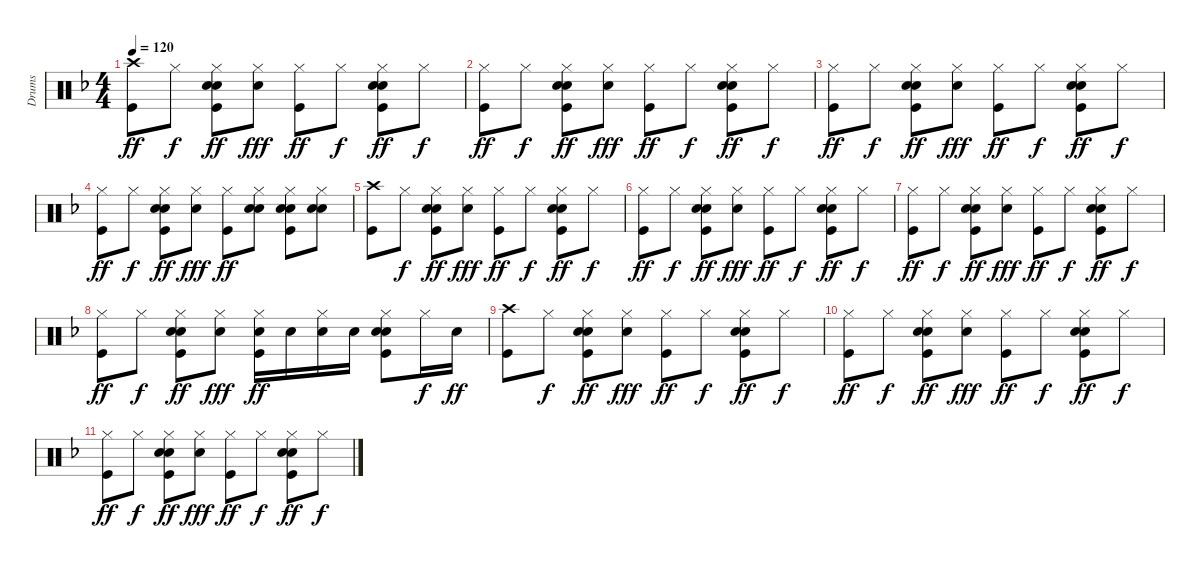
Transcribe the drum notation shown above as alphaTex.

\track ("Drums" "Drums") {instrument percussion}
\staff {score}
\articulation defaults
\ts (4 4)
\tempo 120
\clef neutral
\ks f
("Crash high (hit)" "Kick (hit)").8{dy ff} "Hi-Hat (closed)".8{dy f} ("Hi-Hat (closed)" "Hand Clap (hit)" "Snare (hit) 2" "Kick (hit)").8{dy ff} ("Hi-Hat (closed)" "Hand Clap (hit)").8{dy fff} ("Hi-Hat (closed)" "Kick (hit)").8{dy ff} "Hi-Hat (closed)".8{dy f} ("Hi-Hat (closed)" "Hand Clap (hit)" "Snare (hit) 2" "Kick (hit)").8{dy ff} "Hi-Hat (closed)".8{dy f} |
("Hi-Hat (closed)" "Kick (hit)").8{dy ff} "Hi-Hat (closed)".8{dy f} ("Hi-Hat (closed)" "Hand Clap (hit)" "Snare (hit) 2" "Kick (hit)").8{dy ff} ("Hi-Hat (closed)" "Hand Clap (hit)").8{dy fff} ("Hi-Hat (closed)" "Kick (hit)").8{dy ff} "Hi-Hat (closed)".8{dy f} ("Hi-Hat (closed)" "Hand Clap (hit)" "Snare (hit) 2" "Kick (hit)").8{dy ff} "Hi-Hat (closed)".8{dy f} |
("Hi-Hat (closed)" "Kick (hit)").8{dy ff} "Hi-Hat (closed)".8{dy f} ("Hi-Hat (closed)" "Hand Clap (hit)" "Snare (hit) 2" "Kick (hit)").8{dy ff} ("Hi-Hat (closed)" "Hand Clap (hit)").8{dy fff} ("Hi-Hat (closed)" "Kick (hit)").8{dy ff} "Hi-Hat (closed)".8{dy f} ("Hi-Hat (closed)" "Hand Clap (hit)" "Snare (hit) 2" "Kick (hit)").8{dy ff} "Hi-Hat (closed)".8{dy f} |
("Hi-Hat (closed)" "Kick (hit)").8{dy ff} "Hi-Hat (closed)".8{dy f} ("Hi-Hat (closed)" "Hand Clap (hit)" "Snare (hit) 2" "Kick (hit)").8{dy ff} ("Hi-Hat (closed)" "Hand Clap (hit)").8{dy fff} ("Hi-Hat (closed)" "Kick (hit)").8{dy ff} ("Hi-Hat (closed)" "Hand Clap (hit)" "Snare (hit) 2").8 ("Hi-Hat (closed)" "Hand Clap (hit)" "Snare (hit) 2" "Kick (hit)").8 ("Hi-Hat (closed)" "Hand Clap (hit)" "Snare (hit) 2").8 |
("Crash high (hit)" "Kick (hit)").8 "Hi-Hat (closed)".8{dy f} ("Hi-Hat (closed)" "Hand Clap (hit)" "Snare (hit) 2" "Kick (hit)").8{dy ff} ("Hi-Hat (closed)" "Hand Clap (hit)").8{dy fff} ("Hi-Hat (closed)" "Kick (hit)").8{dy ff} "Hi-Hat (closed)".8{dy f} ("Hi-Hat (closed)" "Hand Clap (hit)" "Snare (hit) 2" "Kick (hit)").8{dy ff} "Hi-Hat (closed)".8{dy f} |
("Hi-Hat (closed)" "Kick (hit)").8{dy ff} "Hi-Hat (closed)".8{dy f} ("Hi-Hat (closed)" "Hand Clap (hit)" "Snare (hit) 2" "Kick (hit)").8{dy ff} ("Hi-Hat (closed)" "Hand Clap (hit)").8{dy fff} ("Hi-Hat (closed)" "Kick (hit)").8{dy ff} "Hi-Hat (closed)".8{dy f} ("Hi-Hat (closed)" "Hand Clap (hit)" "Snare (hit) 2" "Kick (hit)").8{dy ff} "Hi-Hat (closed)".8{dy f} |
("Hi-Hat (closed)" "Kick (hit)").8{dy ff} "Hi-Hat (closed)".8{dy f} ("Hi-Hat (closed)" "Hand Clap (hit)" "Snare (hit) 2" "Kick (hit)").8{dy ff} ("Hi-Hat (closed)" "Hand Clap (hit)").8{dy fff} ("Hi-Hat (closed)" "Kick (hit)").8{dy ff} "Hi-Hat (closed)".8{dy f} ("Hi-Hat (closed)" "Hand Clap (hit)" "Snare (hit) 2" "Kick (hit)").8{dy ff} "Hi-Hat (closed)".8{dy f} |
("Hi-Hat (closed)" "Kick (hit)").8{dy ff} "Hi-Hat (closed)".8{dy f} ("Hi-Hat (closed)" "Hand Clap (hit)" "Snare (hit) 2" "Kick (hit)").8{dy ff} ("Hi-Hat (closed)" "Hand Clap (hit)").8{dy fff} ("Hi-Hat (closed)" "Snare (hit) 2" "Kick (hit)").16{dy ff} "Snare (hit) 2".16 ("Hi-Hat (closed)" "Snare (hit) 2").16 "Snare (hit) 2".16 ("Hi-Hat (closed)" "Hand Clap (hit)" "Snare (hit) 2" "Kick (hit)").8 "Hi-Hat (closed)".16{dy f} "Snare (hit) 2".16{dy ff} |
("Crash high (hit)" "Kick (hit)").8 "Hi-Hat (closed)".8{dy f} ("Hi-Hat (closed)" "Hand Clap (hit)" "Snare (hit) 2" "Kick (hit)").8{dy ff} ("Hi-Hat (closed)" "Hand Clap (hit)").8{dy fff} ("Hi-Hat (closed)" "Kick (hit)").8{dy ff} "Hi-Hat (closed)".8{dy f} ("Hi-Hat (closed)" "Hand Clap (hit)" "Snare (hit) 2" "Kick (hit)").8{dy ff} "Hi-Hat (closed)".8{dy f} |
("Hi-Hat (closed)" "Kick (hit)").8{dy ff} "Hi-Hat (closed)".8{dy f} ("Hi-Hat (closed)" "Hand Clap (hit)" "Snare (hit) 2" "Kick (hit)").8{dy ff} ("Hi-Hat (closed)" "Hand Clap (hit)").8{dy fff} ("Hi-Hat (closed)" "Kick (hit)").8{dy ff} "Hi-Hat (closed)".8{dy f} ("Hi-Hat (closed)" "Hand Clap (hit)" "Snare (hit) 2" "Kick (hit)").8{dy ff} "Hi-Hat (closed)".8{dy f} |
("Hi-Hat (closed)" "Kick (hit)").8{dy ff} "Hi-Hat (closed)".8{dy f} ("Hi-Hat (closed)" "Hand Clap (hit)" "Snare (hit) 2" "Kick (hit)").8{dy ff} ("Hi-Hat (closed)" "Hand Clap (hit)").8{dy fff} ("Hi-Hat (closed)" "Kick (hit)").8{dy ff} "Hi-Hat (closed)".8{dy f} ("Hi-Hat (closed)" "Hand Clap (hit)" "Snare (hit) 2" "Kick (hit)").8{dy ff} "Hi-Hat (closed)".8{dy f}
